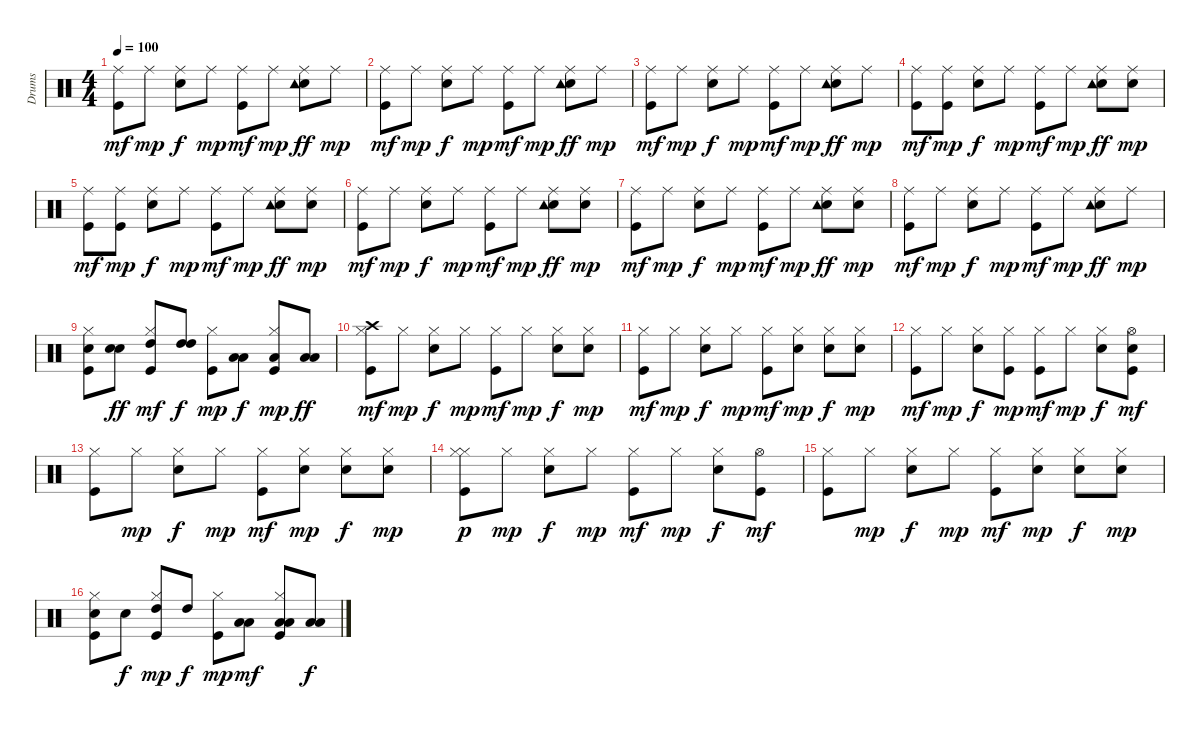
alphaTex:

\track ("Drums" "Drums") {instrument percussion}
\staff {score}
\articulation defaults
\ts (4 4)
\tempo 100
\clef neutral
\ks c
("Kick (hit)" "Ride (middle)").8{dy mf} "Ride (middle)".8{dy mp} ("Snare (hit) 2" "Ride (middle)").8{dy f} "Ride (middle)".8{dy mp} ("Kick (hit)" "Ride (middle)").8{dy mf} "Ride (middle)".8{dy mp} ("Snare (hit) 2" "Ride (middle)" "Tambourine (hit)").8{dy ff} "Ride (middle)".8{dy mp} |
("Kick (hit)" "Ride (middle)").8{dy mf} "Ride (middle)".8{dy mp} ("Snare (hit) 2" "Ride (middle)").8{dy f} "Ride (middle)".8{dy mp} ("Kick (hit)" "Ride (middle)").8{dy mf} "Ride (middle)".8{dy mp} ("Snare (hit) 2" "Ride (middle)" "Tambourine (hit)").8{dy ff} "Ride (middle)".8{dy mp} |
("Kick (hit)" "Ride (middle)").8{dy mf} "Ride (middle)".8{dy mp} ("Snare (hit) 2" "Ride (middle)").8{dy f} "Ride (middle)".8{dy mp} ("Kick (hit)" "Ride (middle)").8{dy mf} "Ride (middle)".8{dy mp} ("Snare (hit) 2" "Ride (middle)" "Tambourine (hit)").8{dy ff} "Ride (middle)".8{dy mp} |
("Kick (hit)" "Ride (middle)").8{dy mf} ("Kick (hit)" "Ride (middle)").8{dy mp} ("Snare (hit) 2" "Ride (middle)").8{dy f} "Ride (middle)".8{dy mp} ("Kick (hit)" "Ride (middle)").8{dy mf} "Ride (middle)".8{dy mp} ("Snare (hit) 2" "Ride (middle)" "Tambourine (hit)").8{dy ff} ("Snare (hit) 2" "Ride (middle)").8{dy mp} |
("Kick (hit)" "Ride (middle)").8{dy mf} ("Kick (hit)" "Ride (middle)").8{dy mp} ("Snare (hit) 2" "Ride (middle)").8{dy f} "Ride (middle)".8{dy mp} ("Kick (hit)" "Ride (middle)").8{dy mf} "Ride (middle)".8{dy mp} ("Snare (hit) 2" "Ride (middle)" "Tambourine (hit)").8{dy ff} ("Snare (hit) 2" "Ride (middle)").8{dy mp} |
("Kick (hit)" "Ride (middle)").8{dy mf} "Ride (middle)".8{dy mp} ("Snare (hit) 2" "Ride (middle)").8{dy f} "Ride (middle)".8{dy mp} ("Kick (hit)" "Ride (middle)").8{dy mf} "Ride (middle)".8{dy mp} ("Snare (hit) 2" "Ride (middle)" "Tambourine (hit)").8{dy ff} ("Snare (hit) 2" "Ride (middle)").8{dy mp} |
("Kick (hit)" "Ride (middle)").8{dy mf} "Ride (middle)".8{dy mp} ("Snare (hit) 2" "Ride (middle)").8{dy f} "Ride (middle)".8{dy mp} ("Kick (hit)" "Ride (middle)").8{dy mf} "Ride (middle)".8{dy mp} ("Snare (hit) 2" "Ride (middle)" "Tambourine (hit)").8{dy ff} ("Snare (hit) 2" "Ride (middle)").8{dy mp} |
("Kick (hit)" "Ride (middle)").8{dy mf} "Ride (middle)".8{dy mp} ("Snare (hit) 2" "Ride (middle)").8{dy f} "Ride (middle)".8{dy mp} ("Kick (hit)" "Ride (middle)").8{dy mf} "Ride (middle)".8{dy mp} ("Snare (hit) 2" "Ride (middle)" "Tambourine (hit)").8{dy ff} "Ride (middle)".8{dy mp} |
("Kick (hit)" "Snare (hit) 2" "Hi-Hat (closed)").8 ("Snare (hit) 2" "Snare (hit) 2").8{dy ff} ("Kick (hit)" "Hi-Hat (closed)" "High Tom (hit)").8{dy mf} ("High Tom (hit)" "High Tom (hit)").8{dy f} ("Kick (hit)" "Hi-Hat (closed)").8{dy mp} ("Low Tom (hit)" "Low Tom (hit)").8{dy f} ("Kick (hit)" "Hi-Hat (closed)" "Low Floor Tom (hit)").8{dy mp} ("Low Floor Tom (hit)" "Low Floor Tom (hit)").8{dy ff} |
("Kick (hit)" "Hi-Hat (closed)" "Crash high (hit)").8{dy mf} "Hi-Hat (closed)".8{dy mp} ("Snare (hit) 2" "Hi-Hat (closed)").8{dy f} "Hi-Hat (closed)".8{dy mp} ("Kick (hit)" "Hi-Hat (closed)").8{dy mf} "Hi-Hat (closed)".8{dy mp} ("Snare (hit) 2" "Hi-Hat (closed)").8{dy f} ("Snare (hit) 2" "Hi-Hat (closed)").8{dy mp} |
("Kick (hit)" "Hi-Hat (closed)").8{dy mf} "Hi-Hat (closed)".8{dy mp} ("Snare (hit) 2" "Hi-Hat (closed)").8{dy f} "Hi-Hat (closed)".8{dy mp} ("Kick (hit)" "Hi-Hat (closed)").8{dy mf} ("Snare (hit) 2" "Hi-Hat (closed)").8{dy mp} ("Snare (hit) 2" "Hi-Hat (closed)").8{dy f} ("Snare (hit) 2" "Hi-Hat (closed)").8{dy mp} |
("Kick (hit)" "Hi-Hat (closed)").8{dy mf} "Hi-Hat (closed)".8{dy mp} ("Snare (hit) 2" "Hi-Hat (closed)").8{dy f} ("Kick (hit)" "Hi-Hat (closed)").8{dy mp} ("Kick (hit)" "Hi-Hat (closed)").8{dy mf} "Hi-Hat (closed)".8{dy mp} ("Snare (hit) 2" "Hi-Hat (closed)").8{dy f} ("Kick (hit)" "Snare (hit) 2" "Hi-Hat (open)").8{dy mf} |
("Kick (hit)" "Hi-Hat (closed)").8 "Hi-Hat (closed)".8{dy mp} ("Snare (hit) 2" "Hi-Hat (closed)").8{dy f} "Hi-Hat (closed)".8{dy mp} ("Kick (hit)" "Hi-Hat (closed)").8{dy mf} ("Snare (hit) 2" "Hi-Hat (closed)").8{dy mp} ("Snare (hit) 2" "Hi-Hat (closed)").8{dy f} ("Snare (hit) 2" "Hi-Hat (closed)").8{dy mp} |
("Kick (hit)" "Hi-Hat (closed)" "Hi-Hat (closed)").8{dy p} "Hi-Hat (closed)".8{dy mp} ("Snare (hit) 2" "Hi-Hat (closed)").8{dy f} "Hi-Hat (closed)".8{dy mp} ("Kick (hit)" "Hi-Hat (closed)").8{dy mf} "Hi-Hat (closed)".8{dy mp} ("Snare (hit) 2" "Hi-Hat (closed)").8{dy f} ("Kick (hit)" "Hi-Hat (open)").8{dy mf} |
("Kick (hit)" "Hi-Hat (closed)").8 "Hi-Hat (closed)".8{dy mp} ("Snare (hit) 2" "Hi-Hat (closed)").8{dy f} "Hi-Hat (closed)".8{dy mp} ("Kick (hit)" "Hi-Hat (closed)").8{dy mf} ("Snare (hit) 2" "Hi-Hat (closed)").8{dy mp} ("Snare (hit) 2" "Hi-Hat (closed)").8{dy f} ("Snare (hit) 2" "Hi-Hat (closed)").8{dy mp} |
("Kick (hit)" "Hi-Hat (closed)" "Snare (hit) 2").8 "Snare (hit) 2".8{dy f} ("Kick (hit)" "Hi-Hat (closed)" "High Tom (hit)").8{dy mp} "High Tom (hit)".8{dy f} ("Kick (hit)" "Hi-Hat (closed)").8{dy mp} ("Low Tom (hit)" "Low Tom (hit)").8{dy mf} ("Kick (hit)" "Hi-Hat (closed)" "Low Floor Tom (hit)" "Low Floor Tom (hit)").8 ("Low Floor Tom (hit)" "Low Floor Tom (hit)").8{dy f}
